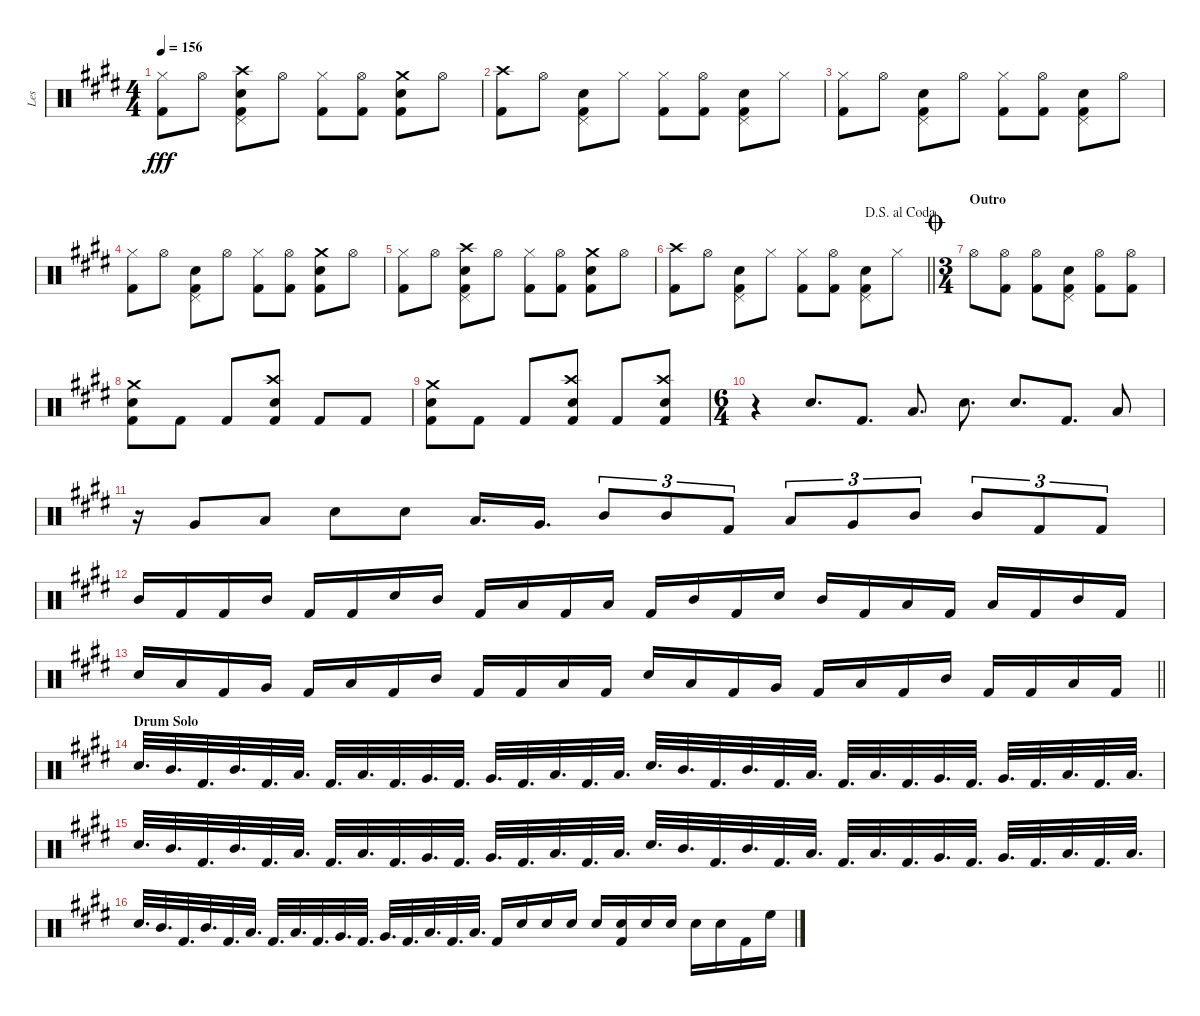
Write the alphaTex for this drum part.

\track ("Les" "Les") {instrument percussion}
\staff {score}
\articulation defaults
\ts (4 4)
\tempo 156
\clef neutral
\ks e
("Hi-Hat (closed)" "Kick (hit) 2").8{dy fff} "Hi-Hat (open)".8 ("Crash high (hit)" "Pedal Hi-Hat (hit)" "Snare (hit) 2" "Kick (hit) 2").8 "Hi-Hat (open)".8 ("Hi-Hat (closed)" "Kick (hit) 2").8 ("Hi-Hat (open)" "Kick (hit) 2").8 ("Crash medium (hit)" "Snare (hit) 2" "Kick (hit) 2").8 "Hi-Hat (open)".8 |
("Crash high (hit)" "Kick (hit) 2").8 "Hi-Hat (open)".8 ("Pedal Hi-Hat (hit)" "Snare (hit) 2" "Kick (hit) 2").8 "Hi-Hat (closed)".8 ("Hi-Hat (closed)" "Kick (hit) 2").8 ("Hi-Hat (open)" "Kick (hit) 2").8 ("Pedal Hi-Hat (hit)" "Snare (hit) 2" "Kick (hit) 2").8 "Hi-Hat (closed)".8 |
("Hi-Hat (closed)" "Kick (hit) 2").8 "Hi-Hat (open)".8 ("Pedal Hi-Hat (hit)" "Snare (hit) 2" "Kick (hit) 2").8 "Hi-Hat (open)".8 ("Hi-Hat (closed)" "Kick (hit) 2").8 ("Hi-Hat (open)" "Kick (hit) 2").8 ("Pedal Hi-Hat (hit)" "Snare (hit) 2" "Kick (hit) 2").8 "Hi-Hat (open)".8 |
("Hi-Hat (closed)" "Kick (hit) 2").8 "Hi-Hat (open)".8 ("Pedal Hi-Hat (hit)" "Snare (hit) 2" "Kick (hit) 2").8 "Hi-Hat (open)".8 ("Hi-Hat (closed)" "Kick (hit) 2").8 ("Hi-Hat (open)" "Kick (hit) 2").8 ("Crash medium (hit)" "Snare (hit) 2" "Kick (hit) 2").8 "Hi-Hat (open)".8 |
("Hi-Hat (closed)" "Kick (hit) 2").8 "Hi-Hat (open)".8 ("Crash high (hit)" "Pedal Hi-Hat (hit)" "Snare (hit) 2" "Kick (hit) 2").8 "Hi-Hat (open)".8 ("Hi-Hat (closed)" "Kick (hit) 2").8 ("Hi-Hat (open)" "Kick (hit) 2").8 ("Crash medium (hit)" "Snare (hit) 2" "Kick (hit) 2").8 "Hi-Hat (open)".8 |
\jump dalsegnoalcoda
\barLineRight lightlight
("Crash high (hit)" "Kick (hit) 2").8 "Hi-Hat (open)".8 ("Pedal Hi-Hat (hit)" "Snare (hit) 2" "Kick (hit) 2").8 "Hi-Hat (closed)".8 ("Hi-Hat (closed)" "Kick (hit) 2").8 ("Hi-Hat (open)" "Kick (hit) 2").8 ("Pedal Hi-Hat (hit)" "Snare (hit) 2" "Kick (hit) 2").8 "Hi-Hat (closed)".8 |
\ts (3 4)
\section ("" "Outro")
\jump coda "Hi-Hat (open)".8
("Hi-Hat (open)" "Kick (hit) 2").8 ("Hi-Hat (open)" "Kick (hit) 2").8 ("Pedal Hi-Hat (hit)" "Snare (hit) 2" "Kick (hit) 2").8 ("Hi-Hat (open)" "Kick (hit) 2").8 ("Hi-Hat (open)" "Kick (hit) 2").8 |
("Crash medium (hit)" "Snare (hit) 2" "Kick (hit) 2").8 "Kick (hit) 2".8 "Kick (hit) 2".8 ("Crash high (hit)" "Snare (hit) 2" "Kick (hit) 2").8 "Kick (hit) 2".8 "Kick (hit) 2".8 |
("Crash medium (hit)" "Snare (hit) 2" "Kick (hit) 2").8 "Kick (hit) 2".8 "Kick (hit) 2".8 ("Crash high (hit)" "Snare (hit) 2" "Kick (hit) 2").8 "Kick (hit) 2".8 ("Crash high (hit)" "Snare (hit) 2" "Kick (hit) 2").8 |
\ts (6 4)
r.4 "Electric Snare (hit)".8{d} "Kick (hit) 2".8{d} "Low Tom (hit)".8{d} "Electric Snare (hit)".8{d} "Electric Snare (hit)".8{d} "Kick (hit) 2".8{d} "Low Tom (hit)".8 |
r.16 "Very Low Tom (hit)".8 "Low Tom (hit)".8 "Electric Snare (hit)".8 "Electric Snare (hit)".8 "Low Tom (hit)".16{d} "Very Low Tom (hit)".16{d} "Mid Tom (hit)".8{tu (3 2)} "Mid Tom (hit)".8{tu (3 2)} "Kick (hit) 2".8{tu (3 2)} "Low Tom (hit)".8{tu (3 2)} "Very Low Tom (hit)".8{tu (3 2)} "Mid Tom (hit)".8{tu (3 2)} "Mid Tom (hit)".8{tu (3 2)} "Kick (hit) 2".8{tu (3 2)} "Kick (hit) 2".8{tu (3 2)} |
"Mid Tom (hit)".16 "Kick (hit) 2".16 "Kick (hit) 2".16 "Mid Tom (hit)".16 "Kick (hit) 2".16 "Kick (hit) 2".16 "Electric Snare (hit)".16 "Mid Tom (hit)".16 "Kick (hit) 2".16 "Low Tom (hit)".16 "Kick (hit) 2".16 "Low Tom (hit)".16 "Kick (hit) 2".16 "Mid Tom (hit)".16 "Kick (hit) 2".16 "Electric Snare (hit)".16 "Mid Tom (hit)".16 "Kick (hit) 2".16 "Low Tom (hit)".16 "Kick (hit) 2".16 "Low Tom (hit)".16 "Kick (hit) 2".16 "Mid Tom (hit)".16 "Kick (hit) 2".16 |
\barLineRight lightlight "Electric Snare (hit)".16 "Low Tom (hit)".16 "Kick (hit) 2".16 "Very Low Tom (hit)".16 "Kick (hit) 2".16 "Low Tom (hit)".16 "Kick (hit) 2".16 "Mid Tom (hit)".16 "Kick (hit) 2".16 "Kick (hit) 2".16 "Low Tom (hit)".16 "Kick (hit) 2".16 "Electric Snare (hit)".16 "Low Tom (hit)".16 "Kick (hit) 2".16 "Very Low Tom (hit)".16 "Kick (hit) 2".16 "Low Tom (hit)".16 "Kick (hit) 2".16 "Mid Tom (hit)".16 "Kick (hit) 2".16 "Kick (hit) 2".16 "Low Tom (hit)".16 "Kick (hit) 2".16
|
\section ("" "Drum Solo")
"Electric Snare (hit)".32{d} "Mid Tom (hit)".32{d} "Kick (hit) 2".32{d} "Mid Tom (hit)".32{d} "Kick (hit) 2".32{d} "Low Tom (hit)".32{d} "Kick (hit) 2".32{d} "Low Tom (hit)".32{d} "Kick (hit) 2".32{d} "Very Low Tom (hit)".32{d} "Kick (hit) 2".32{d} "Very Low Tom (hit)".32{d} "Kick (hit) 2".32{d} "Low Floor Tom (hit)".32{d} "Kick (hit) 2".32{d} "Low Floor Tom (hit)".32{d} "Electric Snare (hit)".32{d} "Mid Tom (hit)".32{d} "Kick (hit) 2".32{d} "Mid Tom (hit)".32{d} "Kick (hit) 2".32{d} "Low Tom (hit)".32{d} "Kick (hit) 2".32{d} "Low Tom (hit)".32{d} "Kick (hit) 2".32{d} "Very Low Tom (hit)".32{d} "Kick (hit) 2".32{d} "Very Low Tom (hit)".32{d} "Kick (hit) 2".32{d} "Low Floor Tom (hit)".32{d} "Kick (hit) 2".32{d} "Low Floor Tom (hit)".32{d} |
"Electric Snare (hit)".32{d} "Mid Tom (hit)".32{d} "Kick (hit) 2".32{d} "Mid Tom (hit)".32{d} "Kick (hit) 2".32{d} "Low Tom (hit)".32{d} "Kick (hit) 2".32{d} "Low Tom (hit)".32{d} "Kick (hit) 2".32{d} "Very Low Tom (hit)".32{d} "Kick (hit) 2".32{d} "Very Low Tom (hit)".32{d} "Kick (hit) 2".32{d} "Low Floor Tom (hit)".32{d} "Kick (hit) 2".32{d} "Low Floor Tom (hit)".32{d} "Electric Snare (hit)".32{d} "Mid Tom (hit)".32{d} "Kick (hit) 2".32{d} "Mid Tom (hit)".32{d} "Kick (hit) 2".32{d} "Low Tom (hit)".32{d} "Kick (hit) 2".32{d} "Low Tom (hit)".32{d} "Kick (hit) 2".32{d} "Very Low Tom (hit)".32{d} "Kick (hit) 2".32{d} "Very Low Tom (hit)".32{d} "Kick (hit) 2".32{d} "Low Floor Tom (hit)".32{d} "Kick (hit) 2".32{d} "Low Floor Tom (hit)".32{d} |
"Electric Snare (hit)".32{d} "Mid Tom (hit)".32{d} "Kick (hit) 2".32{d} "Mid Tom (hit)".32{d} "Kick (hit) 2".32{d} "Low Tom (hit)".32{d} "Kick (hit) 2".32{d} "Low Tom (hit)".32{d} "Kick (hit) 2".32{d} "Very Low Tom (hit)".32{d} "Kick (hit) 2".32{d} "Very Low Tom (hit)".32{d} "Kick (hit) 2".32{d} "Low Floor Tom (hit)".32{d} "Kick (hit) 2".32{d} "Low Floor Tom (hit)".32{d} "Kick (hit) 2".16 "Electric Snare (hit)".16 "Electric Snare (hit)".16 "Electric Snare (hit)".16 "Electric Snare (hit)".16 ("Electric Snare (hit)" "Kick (hit) 2").16 "Electric Snare (hit)".16 "Electric Snare (hit)".16 "Electric Snare (hit)".16 "Electric Snare (hit)".16 "Kick (hit) 2".16 "High Floor Tom (hit)".16
